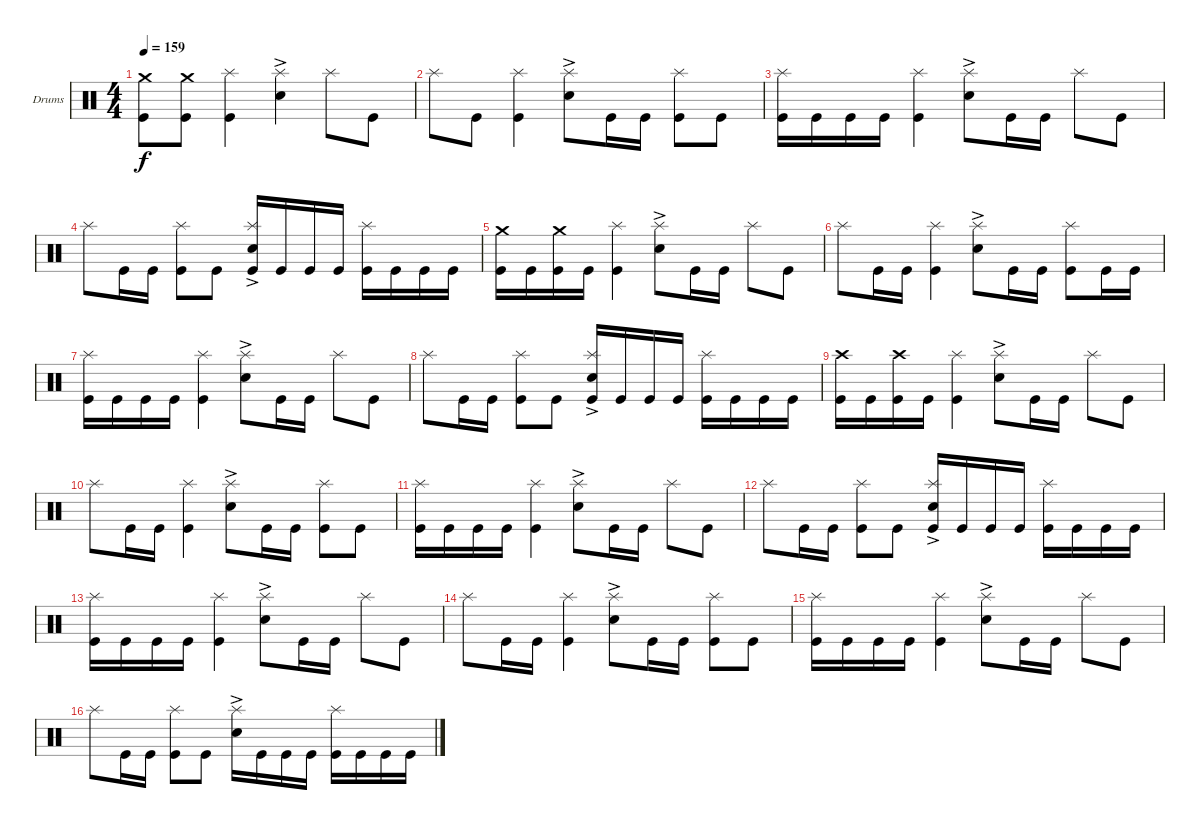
\defaultSystemsLayout 4
\bracketExtendMode groupsimilarinstruments
\firstSystemTrackNameOrientation horizontal
\otherSystemsTrackNameOrientation horizontal
\track ("Drumkit" "Drums") {instrument percussion}
\staff {score}
\articulation defaults
\ts (4 4)
\tempo 159
\clef neutral
\ks c
("Kick (hit)" "Crash medium (hit)").8{dy f} ("Kick (hit)" "Crash medium (hit)").8 ("Kick (hit)" "Splash (hit)").4 ("Snare (hit) 2"{ac} "Splash (hit)").4 "Splash (hit)".8 "Kick (hit)".8 |
"Splash (hit)".8 "Kick (hit)".8 ("Kick (hit)" "Splash (hit)").4 ("Snare (hit) 2"{ac} "Splash (hit)").8 "Kick (hit)".16 "Kick (hit)".16 ("Kick (hit)" "Splash (hit)").8 "Kick (hit)".8 |
("Kick (hit)" "Splash (hit)").16 "Kick (hit)".16 "Kick (hit)".16 "Kick (hit)".16 ("Kick (hit)" "Splash (hit)").4 ("Snare (hit) 2"{ac} "Splash (hit)").8 "Kick (hit)".16 "Kick (hit)".16 "Splash (hit)".8 "Kick (hit)".8 |
"Splash (hit)".8 "Kick (hit)".16 "Kick (hit)".16 ("Kick (hit)" "Splash (hit)").8 "Kick (hit)".8 ("Snare (hit) 2"{ac} "Kick (hit)" "Splash (hit)").16 "Kick (hit)".16 "Kick (hit)".16 "Kick (hit)".16 ("Kick (hit)" "Splash (hit)").16 "Kick (hit)".16 "Kick (hit)".16 "Kick (hit)".16 |
("Kick (hit)" "Crash medium (hit)").16 "Kick (hit)".16 ("Kick (hit)" "Crash medium (hit)").16 "Kick (hit)".16 ("Kick (hit)" "Splash (hit)").4 ("Snare (hit) 2"{ac} "Splash (hit)").8 "Kick (hit)".16 "Kick (hit)".16 "Splash (hit)".8 "Kick (hit)".8 |
"Splash (hit)".8 "Kick (hit)".16 "Kick (hit)".16 ("Kick (hit)" "Splash (hit)").4 ("Snare (hit) 2"{ac} "Splash (hit)").8 "Kick (hit)".16 "Kick (hit)".16 ("Kick (hit)" "Splash (hit)").8 "Kick (hit)".16 "Kick (hit)".16 |
("Kick (hit)" "Splash (hit)").16 "Kick (hit)".16 "Kick (hit)".16 "Kick (hit)".16 ("Kick (hit)" "Splash (hit)").4 ("Snare (hit) 2"{ac} "Splash (hit)").8 "Kick (hit)".16 "Kick (hit)".16 "Splash (hit)".8 "Kick (hit)".8 |
"Splash (hit)".8 "Kick (hit)".16 "Kick (hit)".16 ("Kick (hit)" "Splash (hit)").8 "Kick (hit)".8 ("Snare (hit) 2"{ac} "Kick (hit)" "Splash (hit)").16 "Kick (hit)".16 "Kick (hit)".16 "Kick (hit)".16 ("Kick (hit)" "Splash (hit)").16 "Kick (hit)".16 "Kick (hit)".16 "Kick (hit)".16 |
("Kick (hit)" "Crash high (hit)").16 "Kick (hit)".16 ("Kick (hit)" "Crash high (hit)").16 "Kick (hit)".16 ("Kick (hit)" "Splash (hit)").4 ("Snare (hit) 2"{ac} "Splash (hit)").8 "Kick (hit)".16 "Kick (hit)".16 "Splash (hit)".8 "Kick (hit)".8 |
"Splash (hit)".8 "Kick (hit)".16 "Kick (hit)".16 ("Kick (hit)" "Splash (hit)").4 ("Snare (hit) 2"{ac} "Splash (hit)").8 "Kick (hit)".16 "Kick (hit)".16 ("Kick (hit)" "Splash (hit)").8 "Kick (hit)".8 |
("Kick (hit)" "Splash (hit)").16 "Kick (hit)".16 "Kick (hit)".16 "Kick (hit)".16 ("Kick (hit)" "Splash (hit)").4 ("Snare (hit) 2"{ac} "Splash (hit)").8 "Kick (hit)".16 "Kick (hit)".16 "Splash (hit)".8 "Kick (hit)".8 |
"Splash (hit)".8 "Kick (hit)".16 "Kick (hit)".16 ("Kick (hit)" "Splash (hit)").8 "Kick (hit)".8 ("Snare (hit) 2"{ac} "Kick (hit)" "Splash (hit)").16 "Kick (hit)".16 "Kick (hit)".16 "Kick (hit)".16 ("Kick (hit)" "Splash (hit)").16 "Kick (hit)".16 "Kick (hit)".16 "Kick (hit)".16 |
("Kick (hit)" "Splash (hit)").16 "Kick (hit)".16 "Kick (hit)".16 "Kick (hit)".16 ("Kick (hit)" "Splash (hit)").4 ("Snare (hit) 2"{ac} "Splash (hit)").8 "Kick (hit)".16 "Kick (hit)".16 "Splash (hit)".8 "Kick (hit)".8 |
"Splash (hit)".8 "Kick (hit)".16 "Kick (hit)".16 ("Kick (hit)" "Splash (hit)").4 ("Snare (hit) 2"{ac} "Splash (hit)").8 "Kick (hit)".16 "Kick (hit)".16 ("Kick (hit)" "Splash (hit)").8 "Kick (hit)".8 |
("Kick (hit)" "Splash (hit)").16 "Kick (hit)".16 "Kick (hit)".16 "Kick (hit)".16 ("Kick (hit)" "Splash (hit)").4 ("Snare (hit) 2"{ac} "Splash (hit)").8 "Kick (hit)".16 "Kick (hit)".16 "Splash (hit)".8 "Kick (hit)".8 |
"Splash (hit)".8 "Kick (hit)".16 "Kick (hit)".16 ("Kick (hit)" "Splash (hit)").8 "Kick (hit)".8 ("Snare (hit) 2"{ac} "Splash (hit)").16 "Kick (hit)".16 "Kick (hit)".16 "Kick (hit)".16 ("Kick (hit)" "Splash (hit)").16 "Kick (hit)".16 "Kick (hit)".16 "Kick (hit)".16
